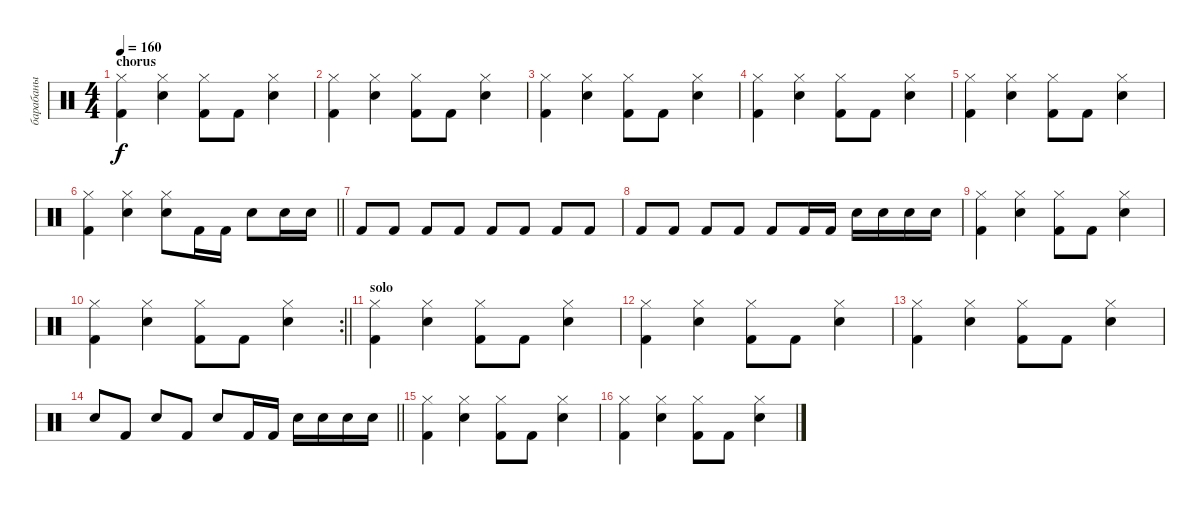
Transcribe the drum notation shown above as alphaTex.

\track ("барабаны" "барабаны") {instrument percussion}
\staff {score}
\articulation defaults
\ts (4 4)
\section ("" "chorus")
\tempo 160
\clef neutral
\ks c
("Hi-Hat (closed)" "Kick (hit) 2").4{dy f} ("Hi-Hat (closed)" "Snare (hit) 2").4 ("Hi-Hat (closed)" "Kick (hit) 2").8 "Kick (hit) 2".8 ("Hi-Hat (closed)" "Snare (hit) 2").4 |
("Hi-Hat (closed)" "Kick (hit) 2").4 ("Hi-Hat (closed)" "Snare (hit) 2").4 ("Hi-Hat (closed)" "Kick (hit) 2").8 "Kick (hit) 2".8 ("Hi-Hat (closed)" "Snare (hit) 2").4 |
("Hi-Hat (closed)" "Kick (hit) 2").4 ("Hi-Hat (closed)" "Snare (hit) 2").4 ("Hi-Hat (closed)" "Kick (hit) 2").8 "Kick (hit) 2".8 ("Hi-Hat (closed)" "Snare (hit) 2").4 |
("Hi-Hat (closed)" "Kick (hit) 2").4 ("Hi-Hat (closed)" "Snare (hit) 2").4 ("Hi-Hat (closed)" "Kick (hit) 2").8 "Kick (hit) 2".8 ("Hi-Hat (closed)" "Snare (hit) 2").4 |
("Hi-Hat (closed)" "Kick (hit) 2").4 ("Hi-Hat (closed)" "Snare (hit) 2").4 ("Hi-Hat (closed)" "Kick (hit) 2").8 "Kick (hit) 2".8 ("Hi-Hat (closed)" "Snare (hit) 2").4 |
\barLineRight lightlight
("Hi-Hat (closed)" "Kick (hit) 2").4 ("Hi-Hat (closed)" "Snare (hit) 2").4 ("Hi-Hat (closed)" "Snare (hit) 2").8 "Kick (hit) 2".16 "Kick (hit) 2".16 "Snare (hit) 2".8 "Snare (hit) 2".16 "Snare (hit) 2".16 |
"Kick (hit) 2".8 "Kick (hit) 2".8 "Kick (hit) 2".8 "Kick (hit) 2".8 "Kick (hit) 2".8 "Kick (hit) 2".8 "Kick (hit) 2".8 "Kick (hit) 2".8 |
"Kick (hit) 2".8 "Kick (hit) 2".8 "Kick (hit) 2".8 "Kick (hit) 2".8 "Kick (hit) 2".8 "Kick (hit) 2".16 "Kick (hit) 2".16 "Snare (hit) 2".16 "Snare (hit) 2".16 "Snare (hit) 2".16 "Snare (hit) 2".16 |
("Hi-Hat (closed)" "Kick (hit) 2").4 ("Hi-Hat (closed)" "Snare (hit) 2").4 ("Hi-Hat (closed)" "Kick (hit) 2").8 "Kick (hit) 2".8 ("Hi-Hat (closed)" "Snare (hit) 2").4 |
\rc 2
\barLineRight lightlight
("Hi-Hat (closed)" "Kick (hit) 2").4 ("Hi-Hat (closed)" "Snare (hit) 2").4 ("Hi-Hat (closed)" "Kick (hit) 2").8 "Kick (hit) 2".8 ("Hi-Hat (closed)" "Snare (hit) 2").4 |
\section ("" "solo")
("Hi-Hat (closed)" "Kick (hit) 2").4 ("Hi-Hat (closed)" "Snare (hit) 2").4 ("Hi-Hat (closed)" "Kick (hit) 2").8 "Kick (hit) 2".8 ("Hi-Hat (closed)" "Snare (hit) 2").4 |
("Hi-Hat (closed)" "Kick (hit) 2").4 ("Hi-Hat (closed)" "Snare (hit) 2").4 ("Hi-Hat (closed)" "Kick (hit) 2").8 "Kick (hit) 2".8 ("Hi-Hat (closed)" "Snare (hit) 2").4 |
("Hi-Hat (closed)" "Kick (hit) 2").4 ("Hi-Hat (closed)" "Snare (hit) 2").4 ("Hi-Hat (closed)" "Kick (hit) 2").8 "Kick (hit) 2".8 ("Hi-Hat (closed)" "Snare (hit) 2").4 |
\barLineRight lightlight "Snare (hit) 2".8 "Kick (hit) 2".8 "Snare (hit) 2".8 "Kick (hit) 2".8 "Snare (hit) 2".8 "Kick (hit) 2".16 "Kick (hit) 2".16 "Snare (hit) 2".16 "Snare (hit) 2".16 "Snare (hit) 2".16 "Snare (hit) 2".16
|
("Hi-Hat (closed)" "Kick (hit) 2").4 ("Hi-Hat (closed)" "Snare (hit) 2").4 ("Hi-Hat (closed)" "Kick (hit) 2").8 "Kick (hit) 2".8 ("Hi-Hat (closed)" "Snare (hit) 2").4 |
("Hi-Hat (closed)" "Kick (hit) 2").4 ("Hi-Hat (closed)" "Snare (hit) 2").4 ("Hi-Hat (closed)" "Kick (hit) 2").8 "Kick (hit) 2".8 ("Hi-Hat (closed)" "Snare (hit) 2").4
